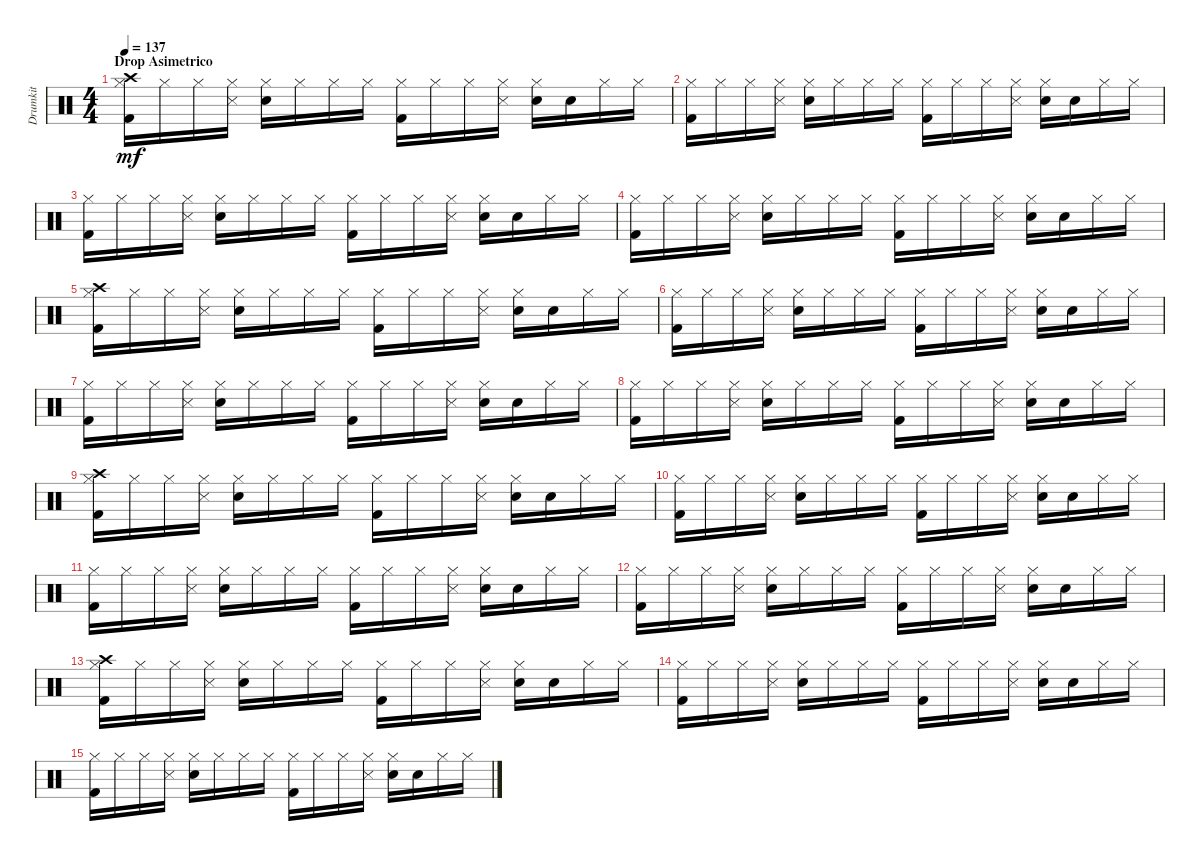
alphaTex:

\track ("Drumkit" "Drumkit") {instrument percussion}
\staff {score}
\articulation defaults
\ts (4 4)
\section ("" "Drop Asimetrico")
\tempo 137
\clef neutral
\ks c
("Hi-Hat (closed)" "Crash high (hit)" "Kick (hit) 2").16{dy mf} "Hi-Hat (closed)".16 "Hi-Hat (closed)".16 ("Hi-Hat (closed)" "Snare (side stick) 3").16 ("Hi-Hat (closed)" "Electric Snare (hit)").16 "Hi-Hat (closed)".16 "Hi-Hat (closed)".16 "Hi-Hat (closed)".16 ("Hi-Hat (closed)" "Kick (hit) 2").16 "Hi-Hat (closed)".16 "Hi-Hat (closed)".16 ("Hi-Hat (closed)" "Snare (side stick) 3").16 ("Hi-Hat (closed)" "Electric Snare (hit)").16 "Snare (hit)".16 "Hi-Hat (closed)".16 "Hi-Hat (closed)".16 |
("Hi-Hat (closed)" "Kick (hit) 2").16 "Hi-Hat (closed)".16 "Hi-Hat (closed)".16 ("Hi-Hat (closed)" "Snare (side stick) 3").16 ("Hi-Hat (closed)" "Electric Snare (hit)").16 "Hi-Hat (closed)".16 "Hi-Hat (closed)".16 "Hi-Hat (closed)".16 ("Hi-Hat (closed)" "Kick (hit) 2").16 "Hi-Hat (closed)".16 "Hi-Hat (closed)".16 ("Hi-Hat (closed)" "Snare (side stick) 3").16 ("Hi-Hat (closed)" "Electric Snare (hit)").16 "Snare (hit)".16 "Hi-Hat (closed)".16 "Hi-Hat (closed)".16 |
("Hi-Hat (closed)" "Kick (hit) 2").16 "Hi-Hat (closed)".16 "Hi-Hat (closed)".16 ("Hi-Hat (closed)" "Snare (side stick) 3").16 ("Hi-Hat (closed)" "Electric Snare (hit)").16 "Hi-Hat (closed)".16 "Hi-Hat (closed)".16 "Hi-Hat (closed)".16 ("Hi-Hat (closed)" "Kick (hit) 2").16 "Hi-Hat (closed)".16 "Hi-Hat (closed)".16 ("Hi-Hat (closed)" "Snare (side stick) 3").16 ("Hi-Hat (closed)" "Electric Snare (hit)").16 "Snare (hit)".16 "Hi-Hat (closed)".16 "Hi-Hat (closed)".16 |
("Hi-Hat (closed)" "Kick (hit) 2").16 "Hi-Hat (closed)".16 "Hi-Hat (closed)".16 ("Hi-Hat (closed)" "Snare (side stick) 3").16 ("Hi-Hat (closed)" "Electric Snare (hit)").16 "Hi-Hat (closed)".16 "Hi-Hat (closed)".16 "Hi-Hat (closed)".16 ("Hi-Hat (closed)" "Kick (hit) 2").16 "Hi-Hat (closed)".16 "Hi-Hat (closed)".16 ("Hi-Hat (closed)" "Snare (side stick) 3").16 ("Hi-Hat (closed)" "Electric Snare (hit)").16 "Snare (hit)".16 "Hi-Hat (closed)".16 "Hi-Hat (closed)".16 |
("Hi-Hat (closed)" "Crash high (hit)" "Kick (hit) 2").16 "Hi-Hat (closed)".16 "Hi-Hat (closed)".16 ("Hi-Hat (closed)" "Snare (side stick) 3").16 ("Hi-Hat (closed)" "Electric Snare (hit)").16 "Hi-Hat (closed)".16 "Hi-Hat (closed)".16 "Hi-Hat (closed)".16 ("Hi-Hat (closed)" "Kick (hit) 2").16 "Hi-Hat (closed)".16 "Hi-Hat (closed)".16 ("Hi-Hat (closed)" "Snare (side stick) 3").16 ("Hi-Hat (closed)" "Electric Snare (hit)").16 "Snare (hit)".16 "Hi-Hat (closed)".16 "Hi-Hat (closed)".16 |
("Hi-Hat (closed)" "Kick (hit) 2").16 "Hi-Hat (closed)".16 "Hi-Hat (closed)".16 ("Hi-Hat (closed)" "Snare (side stick) 3").16 ("Hi-Hat (closed)" "Electric Snare (hit)").16 "Hi-Hat (closed)".16 "Hi-Hat (closed)".16 "Hi-Hat (closed)".16 ("Hi-Hat (closed)" "Kick (hit) 2").16 "Hi-Hat (closed)".16 "Hi-Hat (closed)".16 ("Hi-Hat (closed)" "Snare (side stick) 3").16 ("Hi-Hat (closed)" "Electric Snare (hit)").16 "Snare (hit)".16 "Hi-Hat (closed)".16 "Hi-Hat (closed)".16 |
("Hi-Hat (closed)" "Kick (hit) 2").16 "Hi-Hat (closed)".16 "Hi-Hat (closed)".16 ("Hi-Hat (closed)" "Snare (side stick) 3").16 ("Hi-Hat (closed)" "Electric Snare (hit)").16 "Hi-Hat (closed)".16 "Hi-Hat (closed)".16 "Hi-Hat (closed)".16 ("Hi-Hat (closed)" "Kick (hit) 2").16 "Hi-Hat (closed)".16 "Hi-Hat (closed)".16 ("Hi-Hat (closed)" "Snare (side stick) 3").16 ("Hi-Hat (closed)" "Electric Snare (hit)").16 "Snare (hit)".16 "Hi-Hat (closed)".16 "Hi-Hat (closed)".16 |
("Hi-Hat (closed)" "Kick (hit) 2").16 "Hi-Hat (closed)".16 "Hi-Hat (closed)".16 ("Hi-Hat (closed)" "Snare (side stick) 3").16 ("Hi-Hat (closed)" "Electric Snare (hit)").16 "Hi-Hat (closed)".16 "Hi-Hat (closed)".16 "Hi-Hat (closed)".16 ("Hi-Hat (closed)" "Kick (hit) 2").16 "Hi-Hat (closed)".16 "Hi-Hat (closed)".16 ("Hi-Hat (closed)" "Snare (side stick) 3").16 ("Hi-Hat (closed)" "Electric Snare (hit)").16 "Snare (hit)".16 "Hi-Hat (closed)".16 "Hi-Hat (closed)".16 |
("Hi-Hat (closed)" "Crash high (hit)" "Kick (hit) 2").16 "Hi-Hat (closed)".16 "Hi-Hat (closed)".16 ("Hi-Hat (closed)" "Snare (side stick) 3").16 ("Hi-Hat (closed)" "Electric Snare (hit)").16 "Hi-Hat (closed)".16 "Hi-Hat (closed)".16 "Hi-Hat (closed)".16 ("Hi-Hat (closed)" "Kick (hit) 2").16 "Hi-Hat (closed)".16 "Hi-Hat (closed)".16 ("Hi-Hat (closed)" "Snare (side stick) 3").16 ("Hi-Hat (closed)" "Electric Snare (hit)").16 "Snare (hit)".16 "Hi-Hat (closed)".16 "Hi-Hat (closed)".16 |
("Hi-Hat (closed)" "Kick (hit) 2").16 "Hi-Hat (closed)".16 "Hi-Hat (closed)".16 ("Hi-Hat (closed)" "Snare (side stick) 3").16 ("Hi-Hat (closed)" "Electric Snare (hit)").16 "Hi-Hat (closed)".16 "Hi-Hat (closed)".16 "Hi-Hat (closed)".16 ("Hi-Hat (closed)" "Kick (hit) 2").16 "Hi-Hat (closed)".16 "Hi-Hat (closed)".16 ("Hi-Hat (closed)" "Snare (side stick) 3").16 ("Hi-Hat (closed)" "Electric Snare (hit)").16 "Snare (hit)".16 "Hi-Hat (closed)".16 "Hi-Hat (closed)".16 |
("Hi-Hat (closed)" "Kick (hit) 2").16 "Hi-Hat (closed)".16 "Hi-Hat (closed)".16 ("Hi-Hat (closed)" "Snare (side stick) 3").16 ("Hi-Hat (closed)" "Electric Snare (hit)").16 "Hi-Hat (closed)".16 "Hi-Hat (closed)".16 "Hi-Hat (closed)".16 ("Hi-Hat (closed)" "Kick (hit) 2").16 "Hi-Hat (closed)".16 "Hi-Hat (closed)".16 ("Hi-Hat (closed)" "Snare (side stick) 3").16 ("Hi-Hat (closed)" "Electric Snare (hit)").16 "Snare (hit)".16 "Hi-Hat (closed)".16 "Hi-Hat (closed)".16 |
("Hi-Hat (closed)" "Kick (hit) 2").16 "Hi-Hat (closed)".16 "Hi-Hat (closed)".16 ("Hi-Hat (closed)" "Snare (side stick) 3").16 ("Hi-Hat (closed)" "Electric Snare (hit)").16 "Hi-Hat (closed)".16 "Hi-Hat (closed)".16 "Hi-Hat (closed)".16 ("Hi-Hat (closed)" "Kick (hit) 2").16 "Hi-Hat (closed)".16 "Hi-Hat (closed)".16 ("Hi-Hat (closed)" "Snare (side stick) 3").16 ("Hi-Hat (closed)" "Electric Snare (hit)").16 "Snare (hit)".16 "Hi-Hat (closed)".16 "Hi-Hat (closed)".16 |
("Hi-Hat (closed)" "Crash high (hit)" "Kick (hit) 2").16 "Hi-Hat (closed)".16 "Hi-Hat (closed)".16 ("Hi-Hat (closed)" "Snare (side stick) 3").16 ("Hi-Hat (closed)" "Electric Snare (hit)").16 "Hi-Hat (closed)".16 "Hi-Hat (closed)".16 "Hi-Hat (closed)".16 ("Hi-Hat (closed)" "Kick (hit) 2").16 "Hi-Hat (closed)".16 "Hi-Hat (closed)".16 ("Hi-Hat (closed)" "Snare (side stick) 3").16 ("Hi-Hat (closed)" "Electric Snare (hit)").16 "Snare (hit)".16 "Hi-Hat (closed)".16 "Hi-Hat (closed)".16 |
("Hi-Hat (closed)" "Kick (hit) 2").16 "Hi-Hat (closed)".16 "Hi-Hat (closed)".16 ("Hi-Hat (closed)" "Snare (side stick) 3").16 ("Hi-Hat (closed)" "Electric Snare (hit)").16 "Hi-Hat (closed)".16 "Hi-Hat (closed)".16 "Hi-Hat (closed)".16 ("Hi-Hat (closed)" "Kick (hit) 2").16 "Hi-Hat (closed)".16 "Hi-Hat (closed)".16 ("Hi-Hat (closed)" "Snare (side stick) 3").16 ("Hi-Hat (closed)" "Electric Snare (hit)").16 "Snare (hit)".16 "Hi-Hat (closed)".16 "Hi-Hat (closed)".16 |
("Hi-Hat (closed)" "Kick (hit) 2").16 "Hi-Hat (closed)".16 "Hi-Hat (closed)".16 ("Hi-Hat (closed)" "Snare (side stick) 3").16 ("Hi-Hat (closed)" "Electric Snare (hit)").16 "Hi-Hat (closed)".16 "Hi-Hat (closed)".16 "Hi-Hat (closed)".16 ("Hi-Hat (closed)" "Kick (hit) 2").16 "Hi-Hat (closed)".16 "Hi-Hat (closed)".16 ("Hi-Hat (closed)" "Snare (side stick) 3").16 ("Hi-Hat (closed)" "Electric Snare (hit)").16 "Snare (hit)".16 "Hi-Hat (closed)".16 "Hi-Hat (closed)".16
